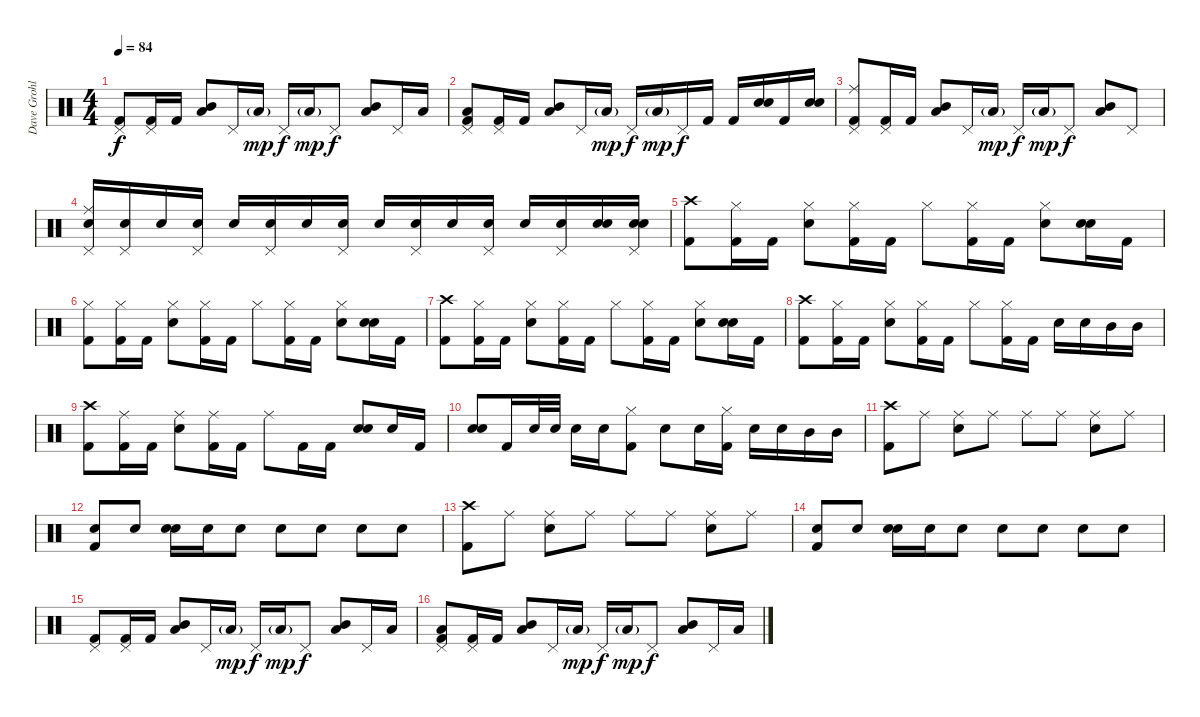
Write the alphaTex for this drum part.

\track ("Dave Grohl (Drums)" "Dave Grohl") {instrument percussion}
\staff {score}
\articulation defaults
\ts (4 4)
\tempo 84
\clef neutral
\ks c
("Pedal Hi-Hat (hit)"{x} "Kick (hit) 2").8{dy f} ("Pedal Hi-Hat (hit)"{x} "Kick (hit) 2").16 "Kick (hit) 2".16 ("Mid Tom (hit)" "Low Floor Tom (hit)").8 "Pedal Hi-Hat (hit)"{x}.16 "Low Floor Tom (hit)"{g}.16{dy mp} "Pedal Hi-Hat (hit)"{x}.16{dy f} "Low Floor Tom (hit)"{g}.16{dy mp} "Pedal Hi-Hat (hit)"{x}.8{dy f} ("Mid Tom (hit)" "Low Floor Tom (hit)").8 "Pedal Hi-Hat (hit)"{x}.16 "Low Floor Tom (hit)".16 |
("Low Floor Tom (hit)" "Pedal Hi-Hat (hit)"{x} "Kick (hit) 2").8 ("Pedal Hi-Hat (hit)"{x} "Kick (hit) 2").16 "Kick (hit) 2".16 ("Mid Tom (hit)" "Low Floor Tom (hit)").8 "Pedal Hi-Hat (hit)"{x}.16 "Low Floor Tom (hit)"{g}.16{dy mp} "Pedal Hi-Hat (hit)"{x}.16{dy f} "Low Floor Tom (hit)"{g}.16{dy mp} "Pedal Hi-Hat (hit)"{x}.16{dy f} "Kick (hit) 2".16 "Kick (hit) 2".16 ("Snare (hit) 2" "Snare (hit) 2").16 "Kick (hit) 2".16 ("Snare (hit) 2" "Snare (hit) 2").16 |
("Ride (middle)"{x} "Pedal Hi-Hat (hit)"{x} "Kick (hit) 2").8 ("Pedal Hi-Hat (hit)"{x} "Kick (hit) 2").16 "Kick (hit) 2".16 ("Mid Tom (hit)" "Low Floor Tom (hit)").8 "Pedal Hi-Hat (hit)"{x}.16 "Low Floor Tom (hit)"{g}.16{dy mp} "Pedal Hi-Hat (hit)"{x}.16{dy f} "Low Floor Tom (hit)"{g}.16{dy mp} "Pedal Hi-Hat (hit)"{x}.8{dy f} ("Mid Tom (hit)" "Low Floor Tom (hit)").8 "Pedal Hi-Hat (hit)"{x}.8 |
("Ride (middle)"{x} "Electric Snare (hit)" "Pedal Hi-Hat (hit)").16 ("Electric Snare (hit)" "Pedal Hi-Hat (hit)").16 "Electric Snare (hit)".16 ("Electric Snare (hit)" "Pedal Hi-Hat (hit)").16 "Electric Snare (hit)".16{volume 10} ("Electric Snare (hit)" "Pedal Hi-Hat (hit)").16 "Electric Snare (hit)".16{volume 10} ("Electric Snare (hit)" "Pedal Hi-Hat (hit)").16 "Electric Snare (hit)".16{volume 11} ("Electric Snare (hit)" "Pedal Hi-Hat (hit)").16 "Electric Snare (hit)".16{volume 11} ("Electric Snare (hit)" "Pedal Hi-Hat (hit)").16 "Electric Snare (hit)".16{volume 12} ("Electric Snare (hit)" "Pedal Hi-Hat (hit)").16 ("Electric Snare (hit)" "Electric Snare (hit)").16{volume 12} ("Electric Snare (hit)" "Electric Snare (hit)" "Pedal Hi-Hat (hit)").16{volume 15} |
("Crash high (hit)"{x} "Kick (hit) 2").8 ("Hi-Hat (closed)" "Kick (hit) 2").16 "Kick (hit) 2".16 ("Hi-Hat (closed)" "Snare (hit) 2").8 ("Hi-Hat (closed)" "Kick (hit) 2").16 "Kick (hit) 2".16 "Hi-Hat (closed)".8 ("Hi-Hat (closed)" "Kick (hit) 2").16 "Kick (hit) 2".16 ("Hi-Hat (closed)" "Snare (hit) 2").8 ("Snare (hit) 2" "Snare (hit) 2").16 "Kick (hit) 2".16 |
("Hi-Hat (closed)" "Kick (hit) 2").8 ("Hi-Hat (closed)" "Kick (hit) 2").16 "Kick (hit) 2".16 ("Hi-Hat (closed)" "Snare (hit) 2").8 ("Hi-Hat (closed)" "Kick (hit) 2").16 "Kick (hit) 2".16 "Hi-Hat (closed)".8 ("Hi-Hat (closed)" "Kick (hit) 2").16 "Kick (hit) 2".16 ("Hi-Hat (closed)" "Snare (hit) 2").8 ("Snare (hit) 2" "Snare (hit) 2").16 "Kick (hit) 2".16 |
("Crash high (hit)"{x} "Kick (hit) 2").8 ("Hi-Hat (closed)" "Kick (hit) 2").16 "Kick (hit) 2".16 ("Hi-Hat (closed)" "Snare (hit) 2").8 ("Hi-Hat (closed)" "Kick (hit) 2").16 "Kick (hit) 2".16 "Hi-Hat (closed)".8 ("Hi-Hat (closed)" "Kick (hit) 2").16 "Kick (hit) 2".16 ("Hi-Hat (closed)" "Snare (hit) 2").8 ("Snare (hit) 2" "Snare (hit) 2").16 "Kick (hit) 2".16 |
("Crash high (hit)"{x} "Kick (hit) 2").8 ("Hi-Hat (closed)" "Kick (hit) 2").16 "Kick (hit) 2".16 ("Hi-Hat (closed)" "Snare (hit) 2").8 ("Hi-Hat (closed)" "Kick (hit) 2").16 "Kick (hit) 2".16 "Hi-Hat (closed)".8 ("Hi-Hat (closed)" "Kick (hit) 2").16 "Kick (hit) 2".16 "Snare (hit) 2".16 "Snare (hit) 2".16 "Mid Tom (hit)".16 "Mid Tom (hit)".16 |
("Crash high (hit)"{x} "Kick (hit) 2").8 ("Ride (middle)"{x} "Kick (hit) 2").16 "Kick (hit) 2".16 ("Ride (middle)"{x} "Snare (hit) 2").8 ("Ride (middle)"{x} "Kick (hit) 2").16 "Kick (hit) 2".16 "Ride (middle)"{x}.8 "Kick (hit) 2".16 "Kick (hit) 2".16 ("Snare (hit)"{x} "Snare (hit) 2").8 "Snare (hit)"{x}.16 "Kick (hit) 2".16 |
("Snare (hit)"{x} "Snare (hit) 2").8 "Kick (hit) 2".16 "Snare (hit) 2".32 "Snare (hit) 2".32 "Snare (hit) 2".16 "Snare (hit) 2".16 ("Hi-Hat (closed)" "Kick (hit) 2").8 "Snare (hit) 2".8 "Snare (hit) 2".16 ("Hi-Hat (closed)" "Kick (hit) 2").16 "Snare (hit) 2".16 "Snare (hit) 2".16 "Mid Tom (hit)".16 "Mid Tom (hit)".16 |
("Crash high (hit)"{x} "Kick (hit) 2").8 "Ride (middle)"{x}.8 ("Ride (middle)"{x} "Snare (hit) 2").8 "Ride (middle)"{x}.8 "Ride (middle)"{x}.8 "Ride (middle)"{x}.8 ("Ride (middle)"{x} "Snare (hit) 2").8 "Ride (middle)"{x}.8 |
("Snare (hit)"{x} "Kick (hit) 2").8 "Snare (hit)"{x}.8 ("Snare (hit)"{x} "Snare (hit) 2").16 "Snare (hit) 2".16 "Snare (hit)"{x}.8 "Snare (hit)"{x}.8 "Snare (hit)"{x}.8 "Snare (hit)"{x}.8 "Snare (hit)"{x}.8 |
("Crash high (hit)"{x} "Kick (hit) 2").8 "Ride (middle)"{x}.8 ("Ride (middle)"{x} "Snare (hit) 2").8 "Ride (middle)"{x}.8 "Ride (middle)"{x}.8 "Ride (middle)"{x}.8 ("Ride (middle)"{x} "Snare (hit) 2").8 "Ride (middle)"{x}.8 |
("Snare (hit)"{x} "Kick (hit) 2").8 "Snare (hit)"{x}.8 ("Snare (hit)"{x} "Snare (hit) 2").16 "Snare (hit) 2".16 "Snare (hit)"{x}.8 "Snare (hit)"{x}.8 "Snare (hit)"{x}.8 "Snare (hit)"{x}.8 "Snare (hit)"{x}.8 |
("Pedal Hi-Hat (hit)"{x} "Kick (hit) 2").8 ("Pedal Hi-Hat (hit)"{x} "Kick (hit) 2").16 "Kick (hit) 2".16 ("Mid Tom (hit)" "Low Floor Tom (hit)").8 "Pedal Hi-Hat (hit)"{x}.16 "Low Floor Tom (hit)"{g}.16{dy mp} "Pedal Hi-Hat (hit)"{x}.16{dy f} "Low Floor Tom (hit)"{g}.16{dy mp} "Pedal Hi-Hat (hit)"{x}.8{dy f} ("Mid Tom (hit)" "Low Floor Tom (hit)").8 "Pedal Hi-Hat (hit)"{x}.16 "Low Floor Tom (hit)".16 |
("Low Floor Tom (hit)" "Pedal Hi-Hat (hit)"{x} "Kick (hit) 2").8 ("Pedal Hi-Hat (hit)"{x} "Kick (hit) 2").16 "Kick (hit) 2".16 ("Mid Tom (hit)" "Low Floor Tom (hit)").8 "Pedal Hi-Hat (hit)"{x}.16 "Low Floor Tom (hit)"{g}.16{dy mp} "Pedal Hi-Hat (hit)"{x}.16{dy f} "Low Floor Tom (hit)"{g}.16{dy mp} "Pedal Hi-Hat (hit)"{x}.8{dy f} ("Mid Tom (hit)" "Low Floor Tom (hit)").8 "Pedal Hi-Hat (hit)"{x}.16 "Low Floor Tom (hit)".16
